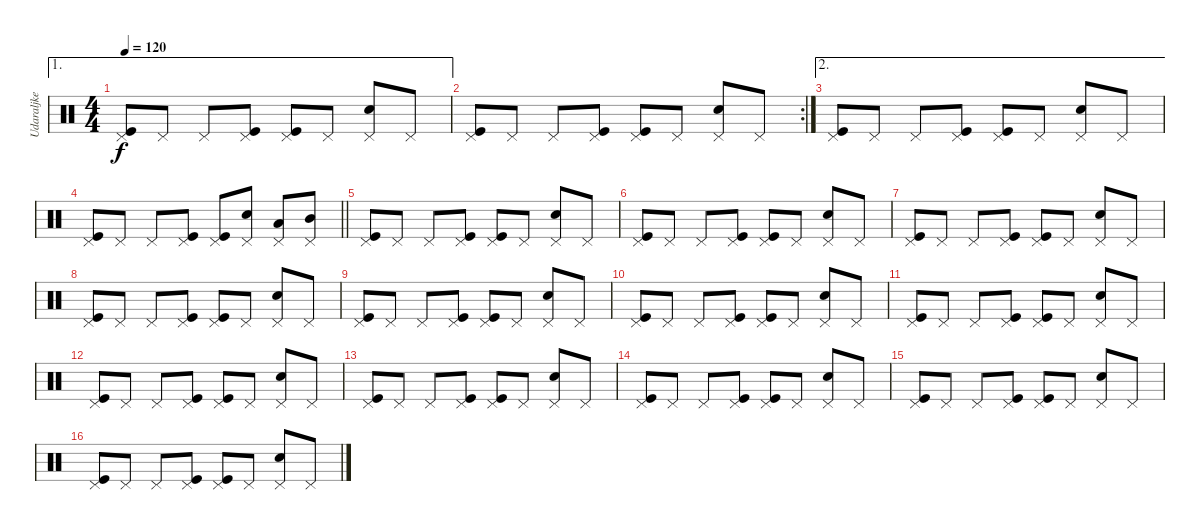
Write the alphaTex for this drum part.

\track ("Udaraljke" "Udaraljke") {instrument percussion}
\staff {score}
\articulation defaults
\ae 1
\ts (4 4)
\tempo 120
\clef neutral
\ks c
("Pedal Hi-Hat (hit)" "Kick (hit)").8{dy f} "Pedal Hi-Hat (hit)".8 "Pedal Hi-Hat (hit)".8 ("Pedal Hi-Hat (hit)" "Kick (hit)").8 ("Pedal Hi-Hat (hit)" "Kick (hit)").8 "Pedal Hi-Hat (hit)".8 ("Pedal Hi-Hat (hit)" "Snare (hit) 2").8 "Pedal Hi-Hat (hit)".8 |
\rc 2
("Pedal Hi-Hat (hit)" "Kick (hit)").8 "Pedal Hi-Hat (hit)".8 "Pedal Hi-Hat (hit)".8 ("Pedal Hi-Hat (hit)" "Kick (hit)").8 ("Pedal Hi-Hat (hit)" "Kick (hit)").8 "Pedal Hi-Hat (hit)".8 ("Pedal Hi-Hat (hit)" "Snare (hit) 2").8 "Pedal Hi-Hat (hit)".8 |
\ae 2
("Pedal Hi-Hat (hit)" "Kick (hit)").8 "Pedal Hi-Hat (hit)".8 "Pedal Hi-Hat (hit)".8 ("Pedal Hi-Hat (hit)" "Kick (hit)").8 ("Pedal Hi-Hat (hit)" "Kick (hit)").8 "Pedal Hi-Hat (hit)".8 ("Pedal Hi-Hat (hit)" "Snare (hit) 2").8 "Pedal Hi-Hat (hit)".8 |
\barLineRight lightlight
("Pedal Hi-Hat (hit)" "Kick (hit)").8 "Pedal Hi-Hat (hit)".8 "Pedal Hi-Hat (hit)".8 ("Pedal Hi-Hat (hit)" "Kick (hit)").8 ("Pedal Hi-Hat (hit)" "Kick (hit)").8 ("Pedal Hi-Hat (hit)" "Snare (hit) 2").8 ("Pedal Hi-Hat (hit)" "Low Tom (hit)").8 ("Pedal Hi-Hat (hit)" "Mid Tom (hit)").8 |
("Pedal Hi-Hat (hit)" "Kick (hit)").8 "Pedal Hi-Hat (hit)".8 "Pedal Hi-Hat (hit)".8 ("Pedal Hi-Hat (hit)" "Kick (hit)").8 ("Pedal Hi-Hat (hit)" "Kick (hit)").8 "Pedal Hi-Hat (hit)".8 ("Pedal Hi-Hat (hit)" "Snare (hit) 2").8 "Pedal Hi-Hat (hit)".8 |
("Pedal Hi-Hat (hit)" "Kick (hit)").8 "Pedal Hi-Hat (hit)".8 "Pedal Hi-Hat (hit)".8 ("Pedal Hi-Hat (hit)" "Kick (hit)").8 ("Pedal Hi-Hat (hit)" "Kick (hit)").8 "Pedal Hi-Hat (hit)".8 ("Pedal Hi-Hat (hit)" "Snare (hit) 2").8 "Pedal Hi-Hat (hit)".8 |
("Pedal Hi-Hat (hit)" "Kick (hit)").8 "Pedal Hi-Hat (hit)".8 "Pedal Hi-Hat (hit)".8 ("Pedal Hi-Hat (hit)" "Kick (hit)").8 ("Pedal Hi-Hat (hit)" "Kick (hit)").8 "Pedal Hi-Hat (hit)".8 ("Pedal Hi-Hat (hit)" "Snare (hit) 2").8 "Pedal Hi-Hat (hit)".8 |
("Pedal Hi-Hat (hit)" "Kick (hit)").8 "Pedal Hi-Hat (hit)".8 "Pedal Hi-Hat (hit)".8 ("Pedal Hi-Hat (hit)" "Kick (hit)").8 ("Pedal Hi-Hat (hit)" "Kick (hit)").8 "Pedal Hi-Hat (hit)".8 ("Pedal Hi-Hat (hit)" "Snare (hit) 2").8 "Pedal Hi-Hat (hit)".8 |
("Pedal Hi-Hat (hit)" "Kick (hit)").8 "Pedal Hi-Hat (hit)".8 "Pedal Hi-Hat (hit)".8 ("Pedal Hi-Hat (hit)" "Kick (hit)").8 ("Pedal Hi-Hat (hit)" "Kick (hit)").8 "Pedal Hi-Hat (hit)".8 ("Pedal Hi-Hat (hit)" "Snare (hit) 2").8 "Pedal Hi-Hat (hit)".8 |
("Pedal Hi-Hat (hit)" "Kick (hit)").8 "Pedal Hi-Hat (hit)".8 "Pedal Hi-Hat (hit)".8 ("Pedal Hi-Hat (hit)" "Kick (hit)").8 ("Pedal Hi-Hat (hit)" "Kick (hit)").8 "Pedal Hi-Hat (hit)".8 ("Pedal Hi-Hat (hit)" "Snare (hit) 2").8 "Pedal Hi-Hat (hit)".8 |
("Pedal Hi-Hat (hit)" "Kick (hit)").8 "Pedal Hi-Hat (hit)".8 "Pedal Hi-Hat (hit)".8 ("Pedal Hi-Hat (hit)" "Kick (hit)").8 ("Pedal Hi-Hat (hit)" "Kick (hit)").8 "Pedal Hi-Hat (hit)".8 ("Pedal Hi-Hat (hit)" "Snare (hit) 2").8 "Pedal Hi-Hat (hit)".8 |
("Pedal Hi-Hat (hit)" "Kick (hit)").8 "Pedal Hi-Hat (hit)".8 "Pedal Hi-Hat (hit)".8 ("Pedal Hi-Hat (hit)" "Kick (hit)").8 ("Pedal Hi-Hat (hit)" "Kick (hit)").8 "Pedal Hi-Hat (hit)".8 ("Pedal Hi-Hat (hit)" "Snare (hit) 2").8 "Pedal Hi-Hat (hit)".8 |
("Pedal Hi-Hat (hit)" "Kick (hit)").8 "Pedal Hi-Hat (hit)".8 "Pedal Hi-Hat (hit)".8 ("Pedal Hi-Hat (hit)" "Kick (hit)").8 ("Pedal Hi-Hat (hit)" "Kick (hit)").8 "Pedal Hi-Hat (hit)".8 ("Pedal Hi-Hat (hit)" "Snare (hit) 2").8 "Pedal Hi-Hat (hit)".8 |
("Pedal Hi-Hat (hit)" "Kick (hit)").8 "Pedal Hi-Hat (hit)".8 "Pedal Hi-Hat (hit)".8 ("Pedal Hi-Hat (hit)" "Kick (hit)").8 ("Pedal Hi-Hat (hit)" "Kick (hit)").8 "Pedal Hi-Hat (hit)".8 ("Pedal Hi-Hat (hit)" "Snare (hit) 2").8 "Pedal Hi-Hat (hit)".8 |
("Pedal Hi-Hat (hit)" "Kick (hit)").8 "Pedal Hi-Hat (hit)".8 "Pedal Hi-Hat (hit)".8 ("Pedal Hi-Hat (hit)" "Kick (hit)").8 ("Pedal Hi-Hat (hit)" "Kick (hit)").8 "Pedal Hi-Hat (hit)".8 ("Pedal Hi-Hat (hit)" "Snare (hit) 2").8 "Pedal Hi-Hat (hit)".8 |
("Pedal Hi-Hat (hit)" "Kick (hit)").8 "Pedal Hi-Hat (hit)".8 "Pedal Hi-Hat (hit)".8 ("Pedal Hi-Hat (hit)" "Kick (hit)").8 ("Pedal Hi-Hat (hit)" "Kick (hit)").8 "Pedal Hi-Hat (hit)".8 ("Pedal Hi-Hat (hit)" "Snare (hit) 2").8 "Pedal Hi-Hat (hit)".8
